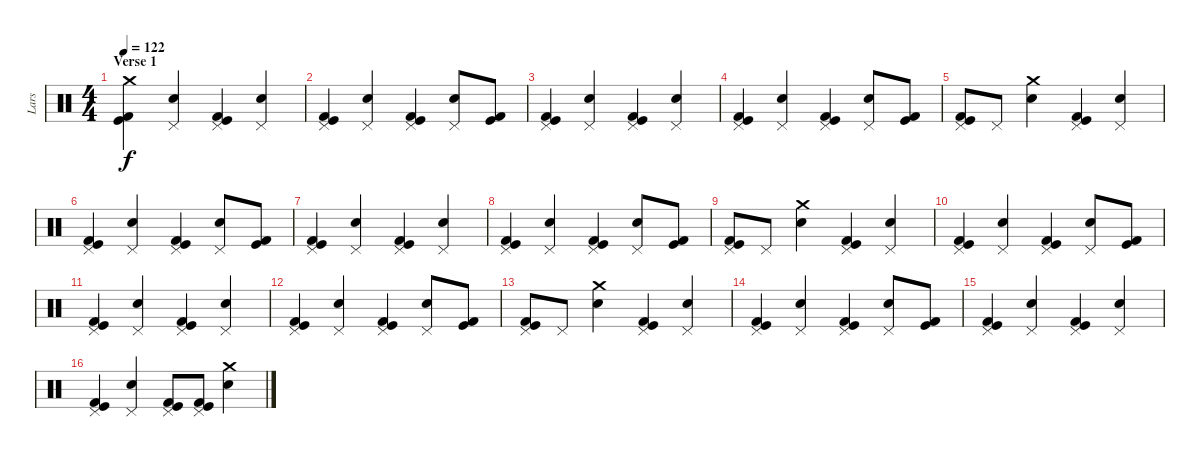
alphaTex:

\track ("Lars" "Lars") {instrument percussion}
\staff {score}
\articulation defaults
\ts (4 4)
\section ("" "Verse 1")
\tempo 122
\clef neutral
\ks c
("Crash medium (hit)" "Kick (hit)" "Kick (hit) 2").4{dy f} ("Pedal Hi-Hat (hit)" "Electric Snare (hit)").4 ("Pedal Hi-Hat (hit)" "Kick (hit)" "Kick (hit) 2").4 ("Pedal Hi-Hat (hit)" "Electric Snare (hit)").4 |
("Pedal Hi-Hat (hit)" "Kick (hit)" "Kick (hit) 2").4 ("Pedal Hi-Hat (hit)" "Electric Snare (hit)").4 ("Pedal Hi-Hat (hit)" "Kick (hit)" "Kick (hit) 2").4 ("Pedal Hi-Hat (hit)" "Electric Snare (hit)").8 ("Kick (hit)" "Kick (hit) 2").8 |
("Pedal Hi-Hat (hit)" "Kick (hit)" "Kick (hit) 2").4 ("Pedal Hi-Hat (hit)" "Electric Snare (hit)").4 ("Pedal Hi-Hat (hit)" "Kick (hit)" "Kick (hit) 2").4 ("Pedal Hi-Hat (hit)" "Electric Snare (hit)").4 |
("Pedal Hi-Hat (hit)" "Kick (hit)" "Kick (hit) 2").4 ("Pedal Hi-Hat (hit)" "Electric Snare (hit)").4 ("Pedal Hi-Hat (hit)" "Kick (hit)" "Kick (hit) 2").4 ("Pedal Hi-Hat (hit)" "Electric Snare (hit)").8 ("Kick (hit)" "Kick (hit) 2").8 |
("Pedal Hi-Hat (hit)" "Kick (hit)" "Kick (hit) 2").8 "Pedal Hi-Hat (hit)".8 ("Crash medium (hit)" "Electric Snare (hit)").4 ("Pedal Hi-Hat (hit)" "Kick (hit)" "Kick (hit) 2").4 ("Pedal Hi-Hat (hit)" "Electric Snare (hit)").4 |
("Pedal Hi-Hat (hit)" "Kick (hit)" "Kick (hit) 2").4 ("Pedal Hi-Hat (hit)" "Electric Snare (hit)").4 ("Pedal Hi-Hat (hit)" "Kick (hit)" "Kick (hit) 2").4 ("Pedal Hi-Hat (hit)" "Electric Snare (hit)").8 ("Kick (hit)" "Kick (hit) 2").8 |
("Pedal Hi-Hat (hit)" "Kick (hit)" "Kick (hit) 2").4 ("Pedal Hi-Hat (hit)" "Electric Snare (hit)").4 ("Pedal Hi-Hat (hit)" "Kick (hit)" "Kick (hit) 2").4 ("Pedal Hi-Hat (hit)" "Electric Snare (hit)").4 |
("Pedal Hi-Hat (hit)" "Kick (hit)" "Kick (hit) 2").4 ("Pedal Hi-Hat (hit)" "Electric Snare (hit)").4 ("Pedal Hi-Hat (hit)" "Kick (hit)" "Kick (hit) 2").4 ("Pedal Hi-Hat (hit)" "Electric Snare (hit)").8 ("Kick (hit)" "Kick (hit) 2").8 |
("Pedal Hi-Hat (hit)" "Kick (hit)" "Kick (hit) 2").8 "Pedal Hi-Hat (hit)".8 ("Crash medium (hit)" "Electric Snare (hit)").4 ("Pedal Hi-Hat (hit)" "Kick (hit)" "Kick (hit) 2").4 ("Pedal Hi-Hat (hit)" "Electric Snare (hit)").4 |
("Pedal Hi-Hat (hit)" "Kick (hit)" "Kick (hit) 2").4 ("Pedal Hi-Hat (hit)" "Electric Snare (hit)").4 ("Pedal Hi-Hat (hit)" "Kick (hit)" "Kick (hit) 2").4 ("Pedal Hi-Hat (hit)" "Electric Snare (hit)").8 ("Kick (hit)" "Kick (hit) 2").8 |
("Pedal Hi-Hat (hit)" "Kick (hit)" "Kick (hit) 2").4 ("Pedal Hi-Hat (hit)" "Electric Snare (hit)").4 ("Pedal Hi-Hat (hit)" "Kick (hit)" "Kick (hit) 2").4 ("Pedal Hi-Hat (hit)" "Electric Snare (hit)").4 |
("Pedal Hi-Hat (hit)" "Kick (hit)" "Kick (hit) 2").4 ("Pedal Hi-Hat (hit)" "Electric Snare (hit)").4 ("Pedal Hi-Hat (hit)" "Kick (hit)" "Kick (hit) 2").4 ("Pedal Hi-Hat (hit)" "Electric Snare (hit)").8 ("Kick (hit)" "Kick (hit) 2").8 |
("Pedal Hi-Hat (hit)" "Kick (hit)" "Kick (hit) 2").8 "Pedal Hi-Hat (hit)".8 ("Crash medium (hit)" "Electric Snare (hit)").4 ("Pedal Hi-Hat (hit)" "Kick (hit)" "Kick (hit) 2").4 ("Pedal Hi-Hat (hit)" "Electric Snare (hit)").4 |
("Pedal Hi-Hat (hit)" "Kick (hit)" "Kick (hit) 2").4 ("Pedal Hi-Hat (hit)" "Electric Snare (hit)").4 ("Pedal Hi-Hat (hit)" "Kick (hit)" "Kick (hit) 2").4 ("Pedal Hi-Hat (hit)" "Electric Snare (hit)").8 ("Kick (hit)" "Kick (hit) 2").8 |
("Pedal Hi-Hat (hit)" "Kick (hit)" "Kick (hit) 2").4 ("Pedal Hi-Hat (hit)" "Electric Snare (hit)").4 ("Pedal Hi-Hat (hit)" "Kick (hit)" "Kick (hit) 2").4 ("Pedal Hi-Hat (hit)" "Electric Snare (hit)").4 |
("Pedal Hi-Hat (hit)" "Kick (hit)" "Kick (hit) 2").4 ("Pedal Hi-Hat (hit)" "Electric Snare (hit)").4 ("Pedal Hi-Hat (hit)" "Kick (hit)" "Kick (hit) 2").8 ("Pedal Hi-Hat (hit)" "Kick (hit)" "Kick (hit) 2").8 ("Crash medium (hit)" "Electric Snare (hit)").4
